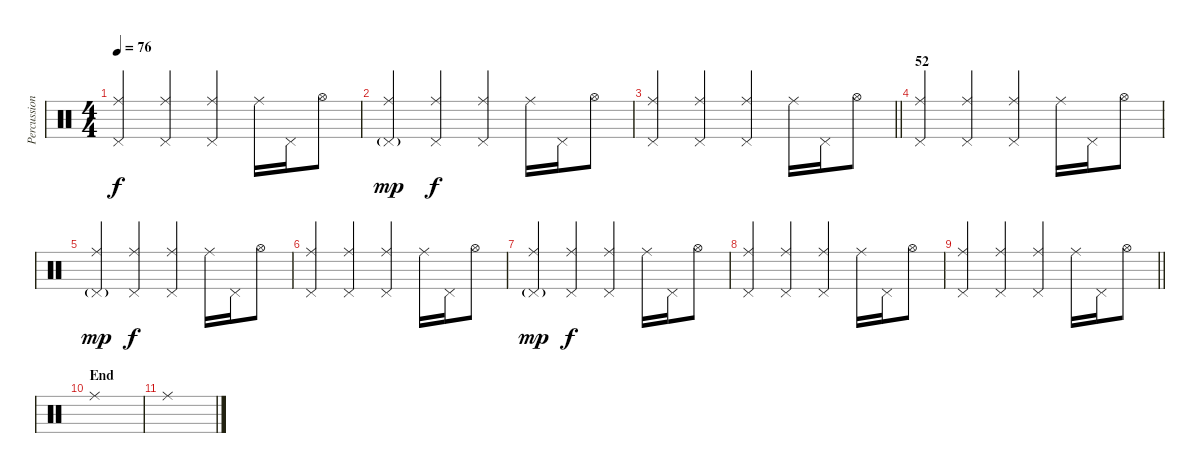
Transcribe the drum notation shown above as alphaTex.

\track ("Percussion" "Percussion") {instrument percussion}
\staff {score}
\articulation defaults
\ts (4 4)
\tempo 76
\clef neutral
\ks c
("Ride (middle)" "Pedal Hi-Hat (hit)").4{dy f} ("Ride (middle)" "Pedal Hi-Hat (hit)").4 ("Ride (middle)" "Pedal Hi-Hat (hit)").4 "Ride (middle)".16 "Pedal Hi-Hat (hit)".16 "Hi-Hat (open)".8 |
("Ride (middle)" "Pedal Hi-Hat (hit)"{g}).4{dy mp} ("Ride (middle)" "Pedal Hi-Hat (hit)").4{dy f} ("Ride (middle)" "Pedal Hi-Hat (hit)").4 "Ride (middle)".16 "Pedal Hi-Hat (hit)".16 "Hi-Hat (open)".8 |
\barLineRight lightlight
("Ride (middle)" "Pedal Hi-Hat (hit)").4 ("Ride (middle)" "Pedal Hi-Hat (hit)").4 ("Ride (middle)" "Pedal Hi-Hat (hit)").4 "Ride (middle)".16 "Pedal Hi-Hat (hit)".16 "Hi-Hat (open)".8 |
\section ("" "52")
("Ride (middle)" "Pedal Hi-Hat (hit)").4 ("Ride (middle)" "Pedal Hi-Hat (hit)").4 ("Ride (middle)" "Pedal Hi-Hat (hit)").4 "Ride (middle)".16 "Pedal Hi-Hat (hit)".16 "Hi-Hat (open)".8 |
("Ride (middle)" "Pedal Hi-Hat (hit)"{g}).4{dy mp} ("Ride (middle)" "Pedal Hi-Hat (hit)").4{dy f} ("Ride (middle)" "Pedal Hi-Hat (hit)").4 "Ride (middle)".16 "Pedal Hi-Hat (hit)".16 "Hi-Hat (open)".8 |
("Ride (middle)" "Pedal Hi-Hat (hit)").4 ("Ride (middle)" "Pedal Hi-Hat (hit)").4 ("Ride (middle)" "Pedal Hi-Hat (hit)").4 "Ride (middle)".16 "Pedal Hi-Hat (hit)".16 "Hi-Hat (open)".8 |
("Ride (middle)" "Pedal Hi-Hat (hit)"{g}).4{dy mp} ("Ride (middle)" "Pedal Hi-Hat (hit)").4{dy f} ("Ride (middle)" "Pedal Hi-Hat (hit)").4 "Ride (middle)".16 "Pedal Hi-Hat (hit)".16 "Hi-Hat (open)".8 |
("Ride (middle)" "Pedal Hi-Hat (hit)").4 ("Ride (middle)" "Pedal Hi-Hat (hit)").4 ("Ride (middle)" "Pedal Hi-Hat (hit)").4 "Ride (middle)".16 "Pedal Hi-Hat (hit)".16 "Hi-Hat (open)".8 |
\barLineRight lightlight
("Ride (middle)" "Pedal Hi-Hat (hit)").4 ("Ride (middle)" "Pedal Hi-Hat (hit)").4 ("Ride (middle)" "Pedal Hi-Hat (hit)").4 "Ride (middle)".16 "Pedal Hi-Hat (hit)".16 "Hi-Hat (open)".8 |
\section ("" "End")
"Ride (middle)".1 |
"Ride (middle)".1
